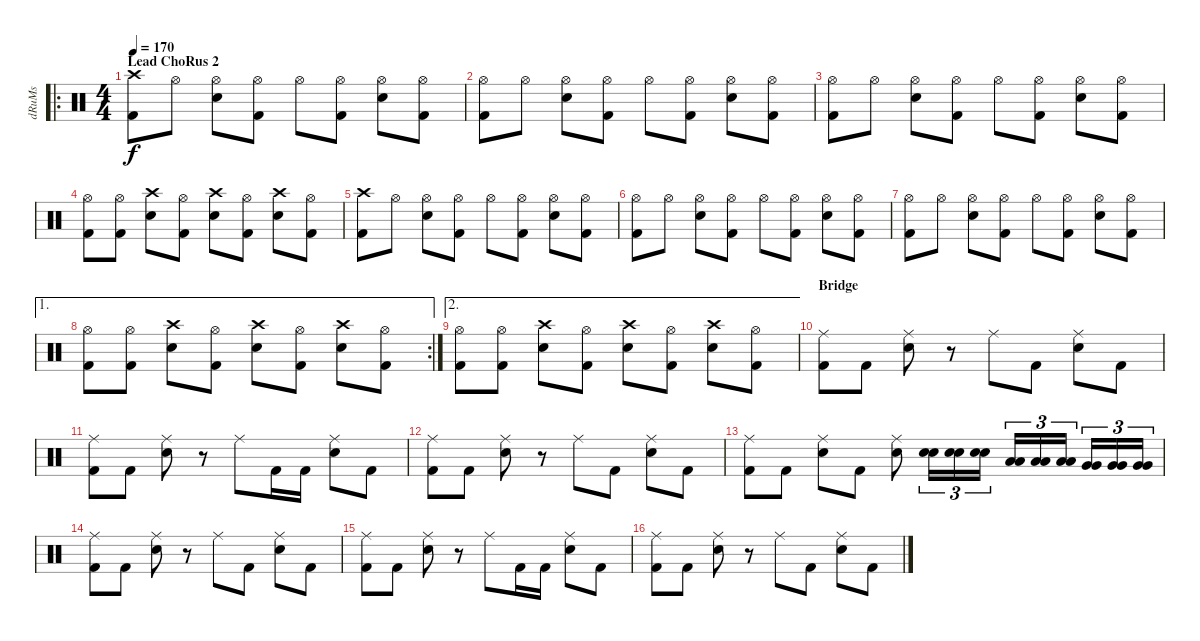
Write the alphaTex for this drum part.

\track ("dRuMs" "dRuMs") {instrument percussion}
\staff {score}
\articulation defaults
\ro
\ts (4 4)
\section ("" "Lead ChoRus 2")
\tempo 170
\clef neutral
\ks c
("Crash high (hit)" "Kick (hit) 2").8{dy f} "Hi-Hat (open)".8 ("Hi-Hat (open)" "Electric Snare (hit)").8 ("Hi-Hat (open)" "Kick (hit) 2").8 "Hi-Hat (open)".8 ("Hi-Hat (open)" "Kick (hit) 2").8 ("Hi-Hat (open)" "Electric Snare (hit)").8 ("Hi-Hat (open)" "Kick (hit) 2").8 |
("Hi-Hat (open)" "Kick (hit) 2").8 "Hi-Hat (open)".8 ("Hi-Hat (open)" "Electric Snare (hit)").8 ("Hi-Hat (open)" "Kick (hit) 2").8 "Hi-Hat (open)".8 ("Hi-Hat (open)" "Kick (hit) 2").8 ("Hi-Hat (open)" "Electric Snare (hit)").8 ("Hi-Hat (open)" "Kick (hit) 2").8 |
("Hi-Hat (open)" "Kick (hit) 2").8 "Hi-Hat (open)".8 ("Hi-Hat (open)" "Electric Snare (hit)").8 ("Hi-Hat (open)" "Kick (hit) 2").8 "Hi-Hat (open)".8 ("Hi-Hat (open)" "Kick (hit) 2").8 ("Hi-Hat (open)" "Electric Snare (hit)").8 ("Hi-Hat (open)" "Kick (hit) 2").8 |
("Hi-Hat (open)" "Kick (hit) 2").8 ("Hi-Hat (open)" "Kick (hit) 2").8 ("Crash high (hit)" "Electric Snare (hit)").8 ("Hi-Hat (open)" "Kick (hit) 2").8 ("Crash high (hit)" "Electric Snare (hit)").8 ("Hi-Hat (open)" "Kick (hit) 2").8 ("Crash high (hit)" "Electric Snare (hit)").8 ("Hi-Hat (open)" "Kick (hit) 2").8 |
("Crash high (hit)" "Kick (hit) 2").8 "Hi-Hat (open)".8 ("Hi-Hat (open)" "Electric Snare (hit)").8 ("Hi-Hat (open)" "Kick (hit) 2").8 "Hi-Hat (open)".8 ("Hi-Hat (open)" "Kick (hit) 2").8 ("Hi-Hat (open)" "Electric Snare (hit)").8 ("Hi-Hat (open)" "Kick (hit) 2").8 |
("Hi-Hat (open)" "Kick (hit) 2").8 "Hi-Hat (open)".8 ("Hi-Hat (open)" "Electric Snare (hit)").8 ("Hi-Hat (open)" "Kick (hit) 2").8 "Hi-Hat (open)".8 ("Hi-Hat (open)" "Kick (hit) 2").8 ("Hi-Hat (open)" "Electric Snare (hit)").8 ("Hi-Hat (open)" "Kick (hit) 2").8 |
("Hi-Hat (open)" "Kick (hit) 2").8 "Hi-Hat (open)".8 ("Hi-Hat (open)" "Electric Snare (hit)").8 ("Hi-Hat (open)" "Kick (hit) 2").8 "Hi-Hat (open)".8 ("Hi-Hat (open)" "Kick (hit) 2").8 ("Hi-Hat (open)" "Electric Snare (hit)").8 ("Hi-Hat (open)" "Kick (hit) 2").8 |
\ae 1
\rc 2
("Hi-Hat (open)" "Kick (hit) 2").8 ("Hi-Hat (open)" "Kick (hit) 2").8 ("Crash high (hit)" "Electric Snare (hit)").8 ("Hi-Hat (open)" "Kick (hit) 2").8 ("Crash high (hit)" "Electric Snare (hit)").8 ("Hi-Hat (open)" "Kick (hit) 2").8 ("Crash high (hit)" "Electric Snare (hit)").8 ("Hi-Hat (open)" "Kick (hit) 2").8 |
\ae 2
("Hi-Hat (open)" "Kick (hit) 2").8 ("Hi-Hat (open)" "Kick (hit) 2").8 ("Crash high (hit)" "Electric Snare (hit)").8 ("Hi-Hat (open)" "Kick (hit) 2").8 ("Crash high (hit)" "Electric Snare (hit)").8 ("Hi-Hat (open)" "Kick (hit) 2").8 ("Crash high (hit)" "Electric Snare (hit)").8 ("Hi-Hat (open)" "Kick (hit) 2").8 |
\section ("" "Bridge")
("Ride (middle)" "Kick (hit) 2").8 "Kick (hit) 2".8 ("Ride (middle)" "Electric Snare (hit)").8 r.8 "Ride (middle)".8 "Kick (hit) 2".8 ("Ride (middle)" "Electric Snare (hit)").8 "Kick (hit) 2".8 |
("Ride (middle)" "Kick (hit) 2").8 "Kick (hit) 2".8 ("Ride (middle)" "Electric Snare (hit)").8 r.8 "Ride (middle)".8 "Kick (hit) 2".16 "Kick (hit) 2".16 ("Ride (middle)" "Electric Snare (hit)").8 "Kick (hit) 2".8 |
("Ride (middle)" "Kick (hit) 2").8 "Kick (hit) 2".8 ("Ride (middle)" "Electric Snare (hit)").8 r.8 "Ride (middle)".8 "Kick (hit) 2".8 ("Ride (middle)" "Electric Snare (hit)").8 "Kick (hit) 2".8 |
("Ride (middle)" "Kick (hit) 2").8 "Kick (hit) 2".8 ("Ride (middle)" "Electric Snare (hit)").8 "Kick (hit) 2".8 ("Ride (middle)" "Electric Snare (hit)").8 ("Electric Snare (hit)" "Electric Snare (hit)").16{tu (3 2)} ("Electric Snare (hit)" "Electric Snare (hit)").16{tu (3 2)} ("Electric Snare (hit)" "Electric Snare (hit)").16{tu (3 2)} ("Low Tom (hit)" "Low Tom (hit)").16{tu (3 2)} ("Low Tom (hit)" "Low Tom (hit)").16{tu (3 2)} ("Low Tom (hit)" "Low Tom (hit)").16{tu (3 2)} ("Very Low Tom (hit)" "Very Low Tom (hit)").16{tu (3 2)} ("Very Low Tom (hit)" "Very Low Tom (hit)").16{tu (3 2)} ("Very Low Tom (hit)" "Very Low Tom (hit)").16{tu (3 2)} |
("Ride (middle)" "Kick (hit) 2").8 "Kick (hit) 2".8 ("Ride (middle)" "Electric Snare (hit)").8 r.8 "Ride (middle)".8 "Kick (hit) 2".8 ("Ride (middle)" "Electric Snare (hit)").8 "Kick (hit) 2".8 |
("Ride (middle)" "Kick (hit) 2").8 "Kick (hit) 2".8 ("Ride (middle)" "Electric Snare (hit)").8 r.8 "Ride (middle)".8 "Kick (hit) 2".16 "Kick (hit) 2".16 ("Ride (middle)" "Electric Snare (hit)").8 "Kick (hit) 2".8 |
("Ride (middle)" "Kick (hit) 2").8 "Kick (hit) 2".8 ("Ride (middle)" "Electric Snare (hit)").8 r.8 "Ride (middle)".8 "Kick (hit) 2".8 ("Ride (middle)" "Electric Snare (hit)").8 "Kick (hit) 2".8
